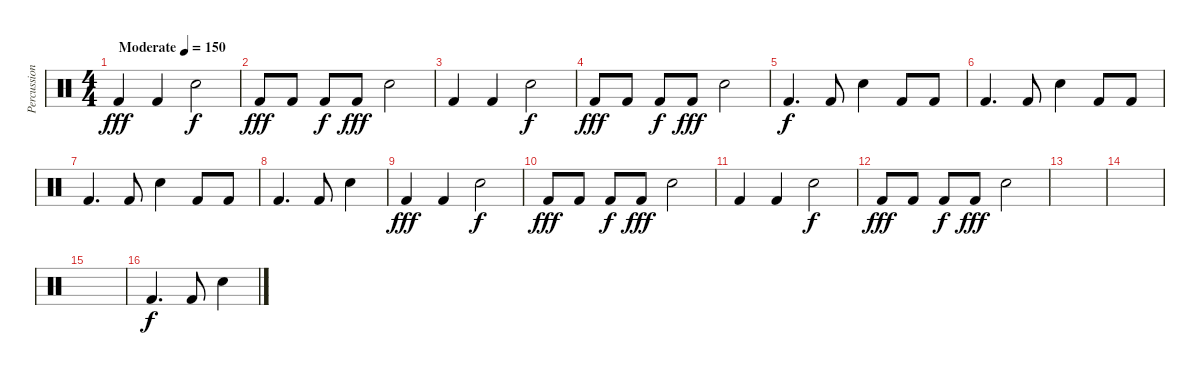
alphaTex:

\track ("Percussion" "Percussion") {instrument percussion}
\staff {score}
\articulation defaults
\ts (4 4)
\tempo (150 "Moderate")
\clef neutral
\ks c "Kick (hit) 2".4{dy fff} "Kick (hit) 2".4 "Hand Clap (hit)".2{dy f}
|
"Kick (hit) 2".8{dy fff} "Kick (hit) 2".8 "Kick (hit) 2".8{dy f} "Kick (hit) 2".8{dy fff} "Hand Clap (hit)".2 |
"Kick (hit) 2".4 "Kick (hit) 2".4 "Hand Clap (hit)".2{dy f} |
"Kick (hit) 2".8{dy fff} "Kick (hit) 2".8 "Kick (hit) 2".8{dy f} "Kick (hit) 2".8{dy fff} "Hand Clap (hit)".2 |
"Kick (hit) 2".4{d dy f} "Kick (hit) 2".8 "Hand Clap (hit)".4 "Kick (hit) 2".8 "Kick (hit) 2".8 |
"Kick (hit) 2".4{d} "Kick (hit) 2".8 "Hand Clap (hit)".4 "Kick (hit) 2".8 "Kick (hit) 2".8 |
"Kick (hit) 2".4{d} "Kick (hit) 2".8 "Hand Clap (hit)".4 "Kick (hit) 2".8 "Kick (hit) 2".8 |
"Kick (hit) 2".4{d} "Kick (hit) 2".8 "Hand Clap (hit)".4 |
"Kick (hit) 2".4{dy fff} "Kick (hit) 2".4 "Hand Clap (hit)".2{dy f} |
"Kick (hit) 2".8{dy fff} "Kick (hit) 2".8 "Kick (hit) 2".8{dy f} "Kick (hit) 2".8{dy fff} "Hand Clap (hit)".2 |
"Kick (hit) 2".4 "Kick (hit) 2".4 "Hand Clap (hit)".2{dy f} |
"Kick (hit) 2".8{dy fff} "Kick (hit) 2".8 "Kick (hit) 2".8{dy f} "Kick (hit) 2".8{dy fff} "Hand Clap (hit)".2 |
|
|
|
"Kick (hit) 2".4{d dy f} "Kick (hit) 2".8 "Hand Clap (hit)".4
